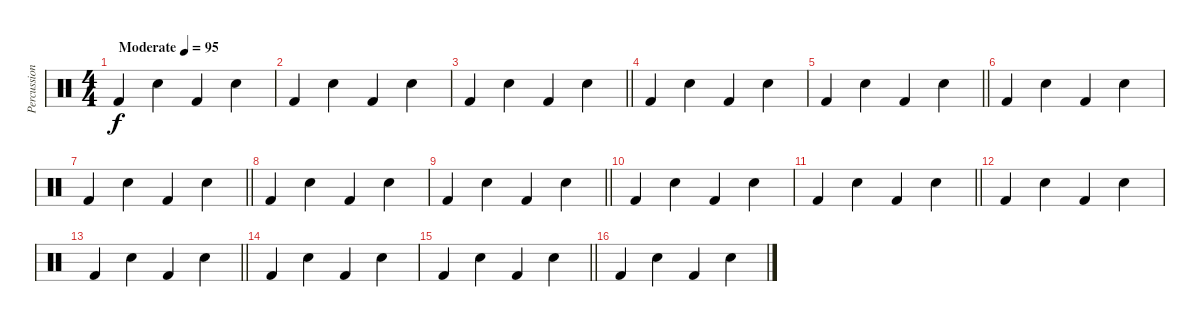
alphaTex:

\track ("Percussion" "Percussion") {instrument percussion}
\staff {score}
\articulation defaults
\ts (4 4)
\tempo (95 "Moderate")
\clef neutral
\ks c "Kick (hit) 2".4{dy f} "Snare (hit) 2".4 "Kick (hit) 2".4 "Snare (hit) 2".4
|
"Kick (hit) 2".4 "Snare (hit) 2".4 "Kick (hit) 2".4 "Snare (hit) 2".4 |
\barLineRight lightlight "Kick (hit) 2".4 "Snare (hit) 2".4 "Kick (hit) 2".4 "Snare (hit) 2".4
|
"Kick (hit) 2".4 "Snare (hit) 2".4 "Kick (hit) 2".4 "Snare (hit) 2".4 |
\barLineRight lightlight "Kick (hit) 2".4 "Snare (hit) 2".4 "Kick (hit) 2".4 "Snare (hit) 2".4
|
"Kick (hit) 2".4 "Snare (hit) 2".4 "Kick (hit) 2".4 "Snare (hit) 2".4 |
\barLineRight lightlight "Kick (hit) 2".4 "Snare (hit) 2".4 "Kick (hit) 2".4 "Snare (hit) 2".4
|
"Kick (hit) 2".4 "Snare (hit) 2".4 "Kick (hit) 2".4 "Snare (hit) 2".4 |
\barLineRight lightlight "Kick (hit) 2".4 "Snare (hit) 2".4 "Kick (hit) 2".4 "Snare (hit) 2".4
|
"Kick (hit) 2".4 "Snare (hit) 2".4 "Kick (hit) 2".4 "Snare (hit) 2".4 |
\barLineRight lightlight "Kick (hit) 2".4 "Snare (hit) 2".4 "Kick (hit) 2".4 "Snare (hit) 2".4
|
"Kick (hit) 2".4 "Snare (hit) 2".4 "Kick (hit) 2".4 "Snare (hit) 2".4 |
\barLineRight lightlight "Kick (hit) 2".4 "Snare (hit) 2".4 "Kick (hit) 2".4 "Snare (hit) 2".4
|
"Kick (hit) 2".4 "Snare (hit) 2".4 "Kick (hit) 2".4 "Snare (hit) 2".4 |
\barLineRight lightlight "Kick (hit) 2".4 "Snare (hit) 2".4 "Kick (hit) 2".4 "Snare (hit) 2".4
|
"Kick (hit) 2".4 "Snare (hit) 2".4 "Kick (hit) 2".4 "Snare (hit) 2".4
